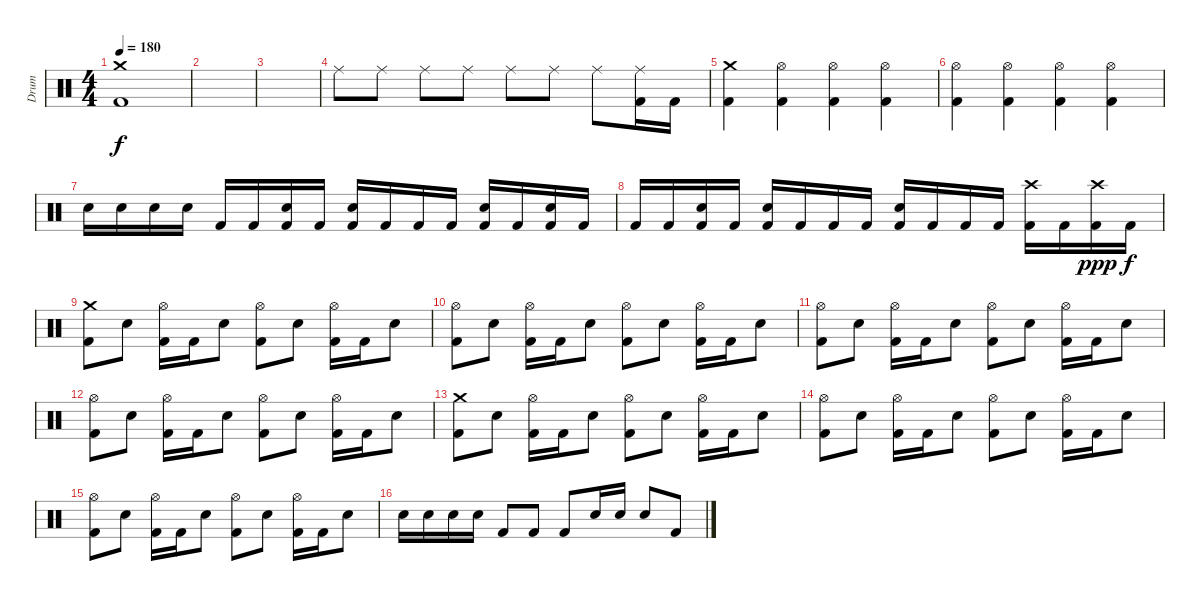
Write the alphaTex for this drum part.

\track ("Drum" "Drum") {instrument percussion}
\staff {score}
\articulation defaults
\ts (4 4)
\tempo 180
\clef neutral
\ks c
("Crash medium (hit)" "Kick (hit) 2").1{dy f} |
|
|
"Ride (middle)".8 "Ride (middle)".8 "Ride (middle)".8 "Ride (middle)".8 "Ride (middle)".8 "Ride (middle)".8 "Ride (middle)".8 ("Ride (middle)" "Kick (hit) 2").16 "Kick (hit) 2".16 |
("Crash medium (hit)" "Kick (hit) 2").4 ("Hi-Hat (open)" "Kick (hit) 2").4 ("Hi-Hat (open)" "Kick (hit) 2").4 ("Hi-Hat (open)" "Kick (hit) 2").4 |
("Hi-Hat (open)" "Kick (hit) 2").4 ("Hi-Hat (open)" "Kick (hit) 2").4 ("Hi-Hat (open)" "Kick (hit) 2").4 ("Hi-Hat (open)" "Kick (hit) 2").4 |
"Snare (hit) 2".16 "Snare (hit) 2".16 "Snare (hit) 2".16 "Snare (hit) 2".16 "Kick (hit) 2".16 "Kick (hit) 2".16 ("Snare (hit) 2" "Kick (hit) 2").16 "Kick (hit) 2".16 ("Snare (hit) 2" "Kick (hit) 2").16 "Kick (hit) 2".16 "Kick (hit) 2".16 "Kick (hit) 2".16 ("Snare (hit) 2" "Kick (hit) 2").16 "Kick (hit) 2".16 ("Snare (hit) 2" "Kick (hit) 2").16 "Kick (hit) 2".16 |
"Kick (hit) 2".16 "Kick (hit) 2".16 ("Snare (hit) 2" "Kick (hit) 2").16 "Kick (hit) 2".16 ("Snare (hit) 2" "Kick (hit) 2").16 "Kick (hit) 2".16 "Kick (hit) 2".16 "Kick (hit) 2".16 ("Snare (hit) 2" "Kick (hit) 2").16 "Kick (hit) 2".16 "Kick (hit) 2".16 "Kick (hit) 2".16 ("Crash high (hit)" "Kick (hit) 2").16 "Kick (hit) 2".16 ("Crash high (hit)" "Kick (hit) 2").16{dy ppp} "Kick (hit) 2".16{dy f} |
("Crash medium (hit)" "Kick (hit) 2").8 "Snare (hit) 2".8 ("Hi-Hat (open)" "Kick (hit) 2").16 "Kick (hit) 2".16 "Snare (hit) 2".8 ("Hi-Hat (open)" "Kick (hit) 2").8 "Snare (hit) 2".8 ("Hi-Hat (open)" "Kick (hit) 2").16 "Kick (hit) 2".16 "Snare (hit) 2".8 |
("Hi-Hat (open)" "Kick (hit) 2").8 "Snare (hit) 2".8 ("Hi-Hat (open)" "Kick (hit) 2").16 "Kick (hit) 2".16 "Snare (hit) 2".8 ("Hi-Hat (open)" "Kick (hit) 2").8 "Snare (hit) 2".8 ("Hi-Hat (open)" "Kick (hit) 2").16 "Kick (hit) 2".16 "Snare (hit) 2".8 |
("Hi-Hat (open)" "Kick (hit) 2").8 "Snare (hit) 2".8 ("Hi-Hat (open)" "Kick (hit) 2").16 "Kick (hit) 2".16 "Snare (hit) 2".8 ("Hi-Hat (open)" "Kick (hit) 2").8 "Snare (hit) 2".8 ("Hi-Hat (open)" "Kick (hit) 2").16 "Kick (hit) 2".16 "Snare (hit) 2".8 |
("Hi-Hat (open)" "Kick (hit) 2").8 "Snare (hit) 2".8 ("Hi-Hat (open)" "Kick (hit) 2").16 "Kick (hit) 2".16 "Snare (hit) 2".8 ("Hi-Hat (open)" "Kick (hit) 2").8 "Snare (hit) 2".8 ("Hi-Hat (open)" "Kick (hit) 2").16 "Kick (hit) 2".16 "Snare (hit) 2".8 |
("Crash medium (hit)" "Kick (hit) 2").8 "Snare (hit) 2".8 ("Hi-Hat (open)" "Kick (hit) 2").16 "Kick (hit) 2".16 "Snare (hit) 2".8 ("Hi-Hat (open)" "Kick (hit) 2").8 "Snare (hit) 2".8 ("Hi-Hat (open)" "Kick (hit) 2").16 "Kick (hit) 2".16 "Snare (hit) 2".8 |
("Hi-Hat (open)" "Kick (hit) 2").8 "Snare (hit) 2".8 ("Hi-Hat (open)" "Kick (hit) 2").16 "Kick (hit) 2".16 "Snare (hit) 2".8 ("Hi-Hat (open)" "Kick (hit) 2").8 "Snare (hit) 2".8 ("Hi-Hat (open)" "Kick (hit) 2").16 "Kick (hit) 2".16 "Snare (hit) 2".8 |
("Hi-Hat (open)" "Kick (hit) 2").8 "Snare (hit) 2".8 ("Hi-Hat (open)" "Kick (hit) 2").16 "Kick (hit) 2".16 "Snare (hit) 2".8 ("Hi-Hat (open)" "Kick (hit) 2").8 "Snare (hit) 2".8 ("Hi-Hat (open)" "Kick (hit) 2").16 "Kick (hit) 2".16 "Snare (hit) 2".8 |
"Snare (hit) 2".16 "Snare (hit) 2".16 "Snare (hit) 2".16 "Snare (hit) 2".16 "Kick (hit) 2".8 "Kick (hit) 2".8 "Kick (hit) 2".8 "Snare (hit) 2".16 "Snare (hit) 2".16 "Snare (hit) 2".8 "Kick (hit) 2".8
